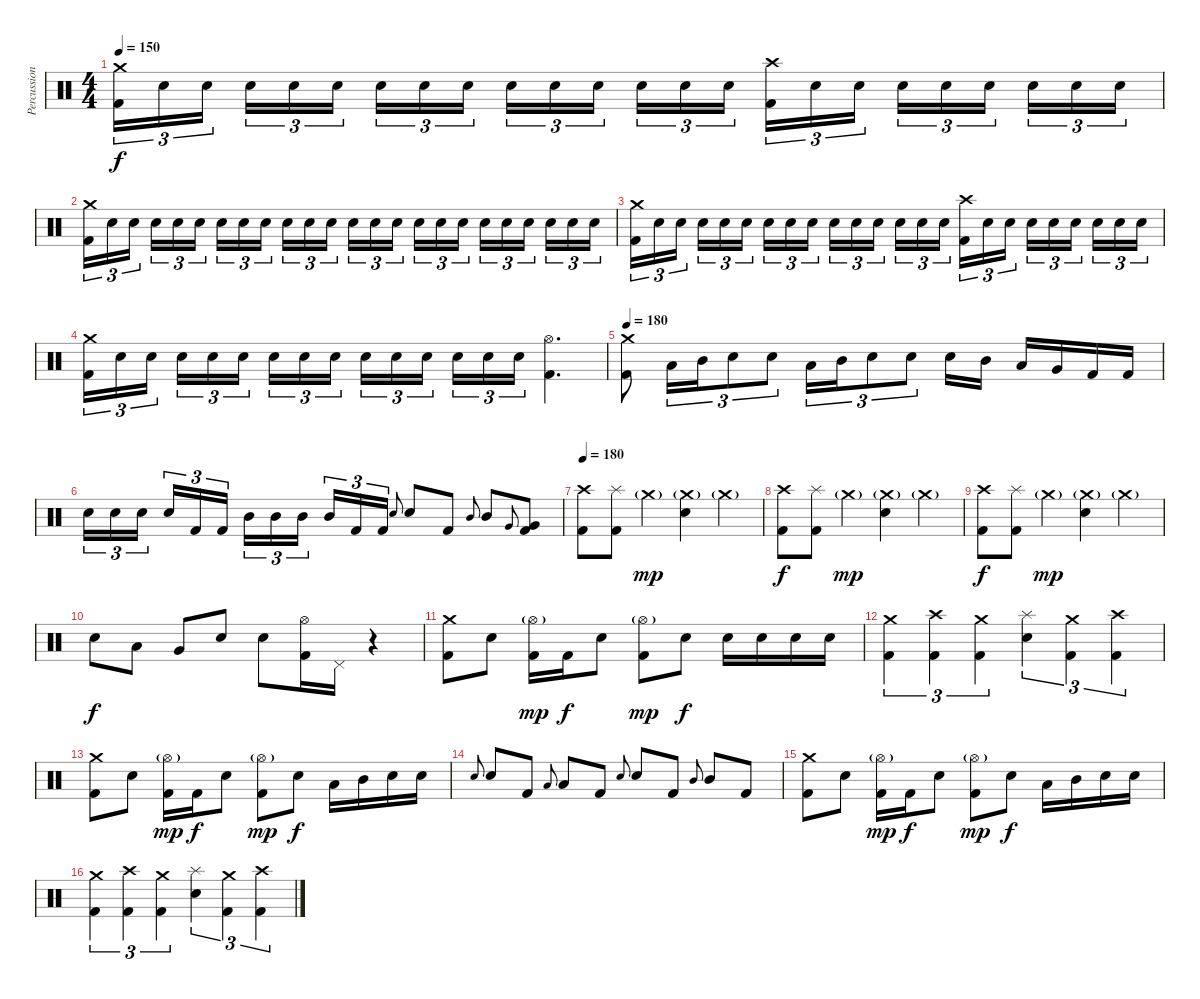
\track ("Percussion" "Percussion") {instrument percussion}
\staff {score}
\articulation defaults
\ts (4 4)
\tempo 150
\clef neutral
\ks c
("Crash medium (hit)" "Kick (hit) 2").16{tu (3 2) dy f} "Electric Snare (hit)".16{tu (3 2)} "Electric Snare (hit)".16{tu (3 2) beam splitsecondary} "Electric Snare (hit)".16{tu (3 2)} "Electric Snare (hit)".16{tu (3 2)} "Electric Snare (hit)".16{tu (3 2)} "Electric Snare (hit)".16{tu (3 2)} "Electric Snare (hit)".16{tu (3 2)} "Electric Snare (hit)".16{tu (3 2) beam splitsecondary} "Electric Snare (hit)".16{tu (3 2)} "Electric Snare (hit)".16{tu (3 2)} "Electric Snare (hit)".16{tu (3 2)} "Electric Snare (hit)".16{tu (3 2)} "Electric Snare (hit)".16{tu (3 2)} "Electric Snare (hit)".16{tu (3 2) beam splitsecondary} ("Crash high (hit)" "Kick (hit) 2").16{tu (3 2)} "Electric Snare (hit)".16{tu (3 2)} "Electric Snare (hit)".16{tu (3 2)} "Electric Snare (hit)".16{tu (3 2)} "Electric Snare (hit)".16{tu (3 2)} "Electric Snare (hit)".16{tu (3 2) beam splitsecondary} "Electric Snare (hit)".16{tu (3 2)} "Electric Snare (hit)".16{tu (3 2)} "Electric Snare (hit)".16{tu (3 2)} |
("Crash medium (hit)" "Kick (hit) 2").16{tu (3 2)} "Electric Snare (hit)".16{tu (3 2)} "Electric Snare (hit)".16{tu (3 2) beam splitsecondary} "Electric Snare (hit)".16{tu (3 2)} "Electric Snare (hit)".16{tu (3 2)} "Electric Snare (hit)".16{tu (3 2)} "Electric Snare (hit)".16{tu (3 2)} "Electric Snare (hit)".16{tu (3 2)} "Electric Snare (hit)".16{tu (3 2) beam splitsecondary} "Electric Snare (hit)".16{tu (3 2)} "Electric Snare (hit)".16{tu (3 2)} "Electric Snare (hit)".16{tu (3 2)} "Electric Snare (hit)".16{tu (3 2)} "Electric Snare (hit)".16{tu (3 2)} "Electric Snare (hit)".16{tu (3 2) beam splitsecondary} "Electric Snare (hit)".16{tu (3 2)} "Electric Snare (hit)".16{tu (3 2)} "Electric Snare (hit)".16{tu (3 2)} "Electric Snare (hit)".16{tu (3 2)} "Electric Snare (hit)".16{tu (3 2)} "Electric Snare (hit)".16{tu (3 2) beam splitsecondary} "Electric Snare (hit)".16{tu (3 2)} "Electric Snare (hit)".16{tu (3 2)} "Electric Snare (hit)".16{tu (3 2)} |
("Crash medium (hit)" "Kick (hit) 2").16{tu (3 2)} "Electric Snare (hit)".16{tu (3 2)} "Electric Snare (hit)".16{tu (3 2) beam splitsecondary} "Electric Snare (hit)".16{tu (3 2)} "Electric Snare (hit)".16{tu (3 2)} "Electric Snare (hit)".16{tu (3 2)} "Electric Snare (hit)".16{tu (3 2)} "Electric Snare (hit)".16{tu (3 2)} "Electric Snare (hit)".16{tu (3 2) beam splitsecondary} "Electric Snare (hit)".16{tu (3 2)} "Electric Snare (hit)".16{tu (3 2)} "Electric Snare (hit)".16{tu (3 2)} "Electric Snare (hit)".16{tu (3 2)} "Electric Snare (hit)".16{tu (3 2)} "Electric Snare (hit)".16{tu (3 2) beam splitsecondary} ("Crash high (hit)" "Kick (hit) 2").16{tu (3 2)} "Electric Snare (hit)".16{tu (3 2)} "Electric Snare (hit)".16{tu (3 2)} "Electric Snare (hit)".16{tu (3 2)} "Electric Snare (hit)".16{tu (3 2)} "Electric Snare (hit)".16{tu (3 2) beam splitsecondary} "Electric Snare (hit)".16{tu (3 2)} "Electric Snare (hit)".16{tu (3 2)} "Electric Snare (hit)".16{tu (3 2)} |
("Crash medium (hit)" "Kick (hit) 2").16{tu (3 2)} "Electric Snare (hit)".16{tu (3 2)} "Electric Snare (hit)".16{tu (3 2) beam splitsecondary} "Electric Snare (hit)".16{tu (3 2)} "Electric Snare (hit)".16{tu (3 2)} "Electric Snare (hit)".16{tu (3 2)} "Electric Snare (hit)".16{tu (3 2)} "Electric Snare (hit)".16{tu (3 2)} "Electric Snare (hit)".16{tu (3 2) beam splitsecondary} "Electric Snare (hit)".16{tu (3 2)} "Electric Snare (hit)".16{tu (3 2)} "Electric Snare (hit)".16{tu (3 2)} "Electric Snare (hit)".16{tu (3 2)} "Electric Snare (hit)".16{tu (3 2)} "Electric Snare (hit)".16{tu (3 2)} ("Hi-Hat (open)" "Kick (hit) 2").4{d} |
\tempo 180
("Crash medium (hit)" "Kick (hit) 2").8 "Low Tom (hit)".16{tu (3 2)} "Mid Tom (hit)".16{tu (3 2)} "Electric Snare (hit)".8{tu (3 2)} "Electric Snare (hit)".8{tu (3 2)} "Low Tom (hit)".16{tu (3 2)} "Mid Tom (hit)".16{tu (3 2)} "Electric Snare (hit)".8{tu (3 2)} "Electric Snare (hit)".8{tu (3 2)} "Electric Snare (hit)".16 "Mid Tom (hit)".16 "Low Tom (hit)".16 "Very Low Tom (hit)".16 "Kick (hit) 2".16 "Kick (hit) 2".16 |
"Electric Snare (hit)".16{tu (3 2)} "Electric Snare (hit)".16{tu (3 2)} "Electric Snare (hit)".16{tu (3 2) beam splitsecondary} "Electric Snare (hit)".16{tu (3 2)} "Kick (hit) 2".16{tu (3 2)} "Kick (hit) 2".16{tu (3 2)} "Mid Tom (hit)".16{tu (3 2)} "Mid Tom (hit)".16{tu (3 2)} "Mid Tom (hit)".16{tu (3 2) beam splitsecondary} "Mid Tom (hit)".16{tu (3 2)} "Kick (hit) 2".16{tu (3 2)} "Kick (hit) 2".16{tu (3 2)} "Electric Snare (hit)".8{gr onbeat} "Electric Snare (hit)".8 "Kick (hit) 2".8 "Mid Tom (hit)".8{gr onbeat} "Mid Tom (hit)".8 "Very Low Tom (hit)".8{gr onbeat} ("Very Low Tom (hit)" "Kick (hit) 2").8 |
\tempo 180
("Crash high (hit)" "Kick (hit) 2").8 ("Splash (hit)" "Kick (hit) 2").8 "Crash medium (hit)"{g}.4{dy mp} ("Crash medium (hit)"{g} "Electric Snare (hit)").4 "Crash medium (hit)"{g}.4 |
("Crash high (hit)" "Kick (hit) 2").8{dy f} ("Splash (hit)" "Kick (hit) 2").8 "Crash medium (hit)"{g}.4{dy mp} ("Crash medium (hit)"{g} "Electric Snare (hit)").4 "Crash medium (hit)"{g}.4 |
("Crash high (hit)" "Kick (hit) 2").8{dy f} ("Splash (hit)" "Kick (hit) 2").8 "Crash medium (hit)"{g}.4{dy mp} ("Crash medium (hit)"{g} "Electric Snare (hit)").4 "Crash medium (hit)"{g}.4 |
"Electric Snare (hit)".8{dy f} "Low Tom (hit)".8 "Very Low Tom (hit)".8 "Electric Snare (hit)".8 "Electric Snare (hit)".8 ("Hi-Hat (open)" "Kick (hit) 2").16 "Pedal Hi-Hat (hit)".16 r.4 |
("Crash medium (hit)" "Kick (hit) 2").8 "Electric Snare (hit)".8 ("Hi-Hat (open)"{g} "Kick (hit) 2").16{dy mp} "Kick (hit) 2".16{dy f} "Electric Snare (hit)".8 ("Hi-Hat (open)"{g} "Kick (hit) 2").8{dy mp} "Electric Snare (hit)".8{dy f} "Electric Snare (hit)".16 "Electric Snare (hit)".16 "Electric Snare (hit)".16 "Electric Snare (hit)".16 |
("Crash medium (hit)" "Kick (hit) 2").4{tu (3 2)} ("Crash high (hit)" "Kick (hit) 2").4{tu (3 2)} ("Crash medium (hit)" "Kick (hit) 2").4{tu (3 2)} ("Splash (hit)" "Electric Snare (hit)").4{tu (3 2)} ("Crash medium (hit)" "Kick (hit) 2").4{tu (3 2)} ("Crash high (hit)" "Kick (hit) 2").4{tu (3 2)} |
("Crash medium (hit)" "Kick (hit) 2").8 "Electric Snare (hit)".8 ("Hi-Hat (open)"{g} "Kick (hit) 2").16{dy mp} "Kick (hit) 2".16{dy f} "Electric Snare (hit)".8 ("Hi-Hat (open)"{g} "Kick (hit) 2").8{dy mp} "Electric Snare (hit)".8{dy f} "Low Tom (hit)".16 "Mid Tom (hit)".16 "Electric Snare (hit)".16 "Electric Snare (hit)".16 |
"Electric Snare (hit)".8{gr onbeat} "Electric Snare (hit)".8 "Kick (hit) 2".8 "Low Tom (hit)".8{gr onbeat} "Low Tom (hit)".8 "Kick (hit) 2".8 "Electric Snare (hit)".8{gr onbeat} "Electric Snare (hit)".8 "Kick (hit) 2".8 "Mid Tom (hit)".8{gr onbeat} "Mid Tom (hit)".8 "Kick (hit) 2".8 |
("Crash medium (hit)" "Kick (hit) 2").8 "Electric Snare (hit)".8 ("Hi-Hat (open)"{g} "Kick (hit) 2").16{dy mp} "Kick (hit) 2".16{dy f} "Electric Snare (hit)".8 ("Hi-Hat (open)"{g} "Kick (hit) 2").8{dy mp} "Electric Snare (hit)".8{dy f} "Low Tom (hit)".16 "Mid Tom (hit)".16 "Electric Snare (hit)".16 "Electric Snare (hit)".16 |
("Crash medium (hit)" "Kick (hit) 2").4{tu (3 2)} ("Crash high (hit)" "Kick (hit) 2").4{tu (3 2)} ("Crash medium (hit)" "Kick (hit) 2").4{tu (3 2)} ("Splash (hit)" "Electric Snare (hit)").4{tu (3 2)} ("Crash medium (hit)" "Kick (hit) 2").4{tu (3 2)} ("Crash high (hit)" "Kick (hit) 2").4{tu (3 2)}
